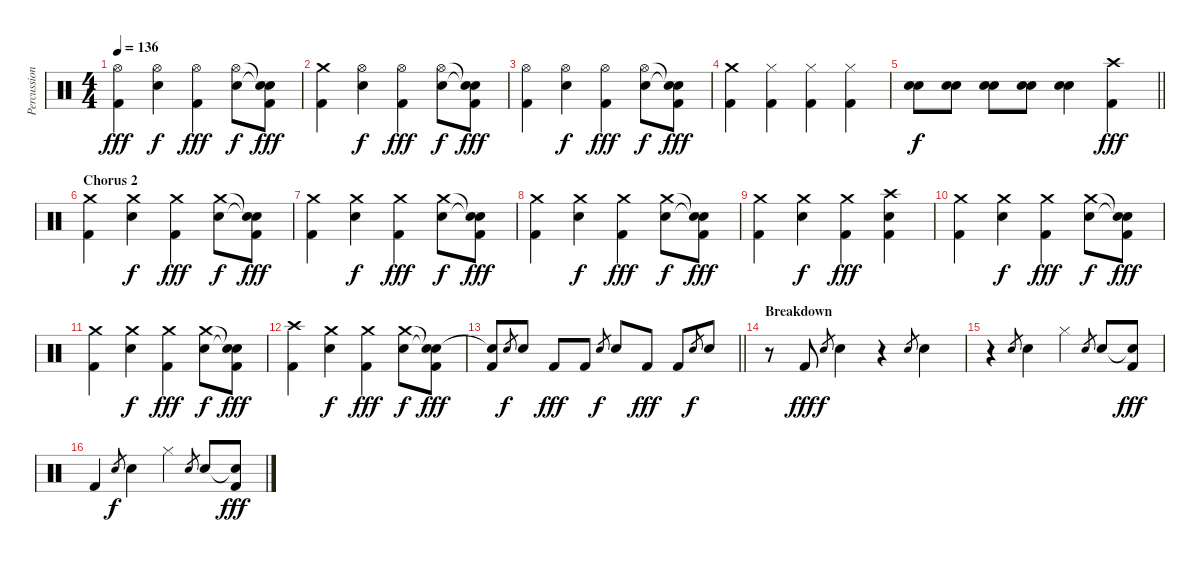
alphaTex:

\track ("Percussion" "Percussion") {instrument percussion}
\staff {score}
\articulation defaults
\ts (4 4)
\tempo 136
\clef neutral
\ks c
("Hi-Hat (open)" "Kick (hit) 2").4{dy fff} ("Hi-Hat (open)" "Electric Snare (hit)").4{dy f} ("Hi-Hat (open)" "Kick (hit) 2").4{dy fff} ("Hi-Hat (open)" "Electric Snare (hit)").8{dy f} ("Snare (hit)"{t} "Snare (hit)"{t} "Kick (hit) 2").8{dy fff} |
("Crash medium (hit)" "Kick (hit) 2").4 ("Hi-Hat (open)" "Electric Snare (hit)").4{dy f} ("Hi-Hat (open)" "Kick (hit) 2").4{dy fff} ("Hi-Hat (open)" "Electric Snare (hit)").8{dy f} ("Snare (hit)"{t} "Snare (hit)"{t} "Kick (hit) 2").8{dy fff} |
("Hi-Hat (open)" "Kick (hit) 2").4 ("Hi-Hat (open)" "Electric Snare (hit)").4{dy f} ("Hi-Hat (open)" "Kick (hit) 2").4{dy fff} ("Hi-Hat (open)" "Electric Snare (hit)").8{dy f} ("Snare (hit)"{t} "Snare (hit)"{t} "Kick (hit) 2").8{dy fff} |
("Crash medium (hit)" "Kick (hit) 2").4 ("Hi-Hat (closed)" "Kick (hit) 2").4 ("Hi-Hat (closed)" "Kick (hit) 2").4 ("Hi-Hat (closed)" "Kick (hit) 2").4 |
\barLineRight lightlight
("Electric Snare (hit)" "Electric Snare (hit)").8{dy f} ("Electric Snare (hit)" "Electric Snare (hit)").8 ("Electric Snare (hit)" "Electric Snare (hit)").8 ("Electric Snare (hit)" "Electric Snare (hit)").8 ("Electric Snare (hit)" "Electric Snare (hit)").4 ("Crash high (hit)" "Kick (hit) 2").4{dy fff} |
\section ("" "Chorus 2")
("Crash medium (hit)" "Kick (hit) 2").4 ("Crash medium (hit)" "Electric Snare (hit)").4{dy f} ("Crash medium (hit)" "Kick (hit) 2").4{dy fff} ("Crash medium (hit)" "Electric Snare (hit)").8{dy f} ("Snare (hit)"{t} "Snare (hit)"{t} "Kick (hit) 2").8{dy fff} |
("Crash medium (hit)" "Kick (hit) 2").4 ("Crash medium (hit)" "Electric Snare (hit)").4{dy f} ("Crash medium (hit)" "Kick (hit) 2").4{dy fff} ("Crash medium (hit)" "Electric Snare (hit)").8{dy f} ("Snare (hit)"{t} "Snare (hit)"{t} "Kick (hit) 2").8{dy fff} |
("Crash medium (hit)" "Kick (hit) 2").4 ("Crash medium (hit)" "Electric Snare (hit)").4{dy f} ("Crash medium (hit)" "Kick (hit) 2").4{dy fff} ("Crash medium (hit)" "Electric Snare (hit)").8{dy f} ("Snare (hit)"{t} "Snare (hit)"{t} "Kick (hit) 2").8{dy fff} |
("Crash medium (hit)" "Kick (hit) 2").4 ("Crash medium (hit)" "Electric Snare (hit)").4{dy f} ("Crash medium (hit)" "Kick (hit) 2").4{dy fff} ("Crash high (hit)" "Electric Snare (hit)" "Kick (hit) 2").4 |
("Crash medium (hit)" "Kick (hit) 2").4 ("Crash medium (hit)" "Electric Snare (hit)").4{dy f} ("Crash medium (hit)" "Kick (hit) 2").4{dy fff} ("Crash medium (hit)" "Electric Snare (hit)").8{dy f} ("Snare (hit)"{t} "Snare (hit)"{t} "Kick (hit) 2").8{dy fff} |
("Crash medium (hit)" "Kick (hit) 2").4 ("Crash medium (hit)" "Electric Snare (hit)").4{dy f} ("Crash medium (hit)" "Kick (hit) 2").4{dy fff} ("Crash medium (hit)" "Electric Snare (hit)").8{dy f} ("Snare (hit)"{t} "Snare (hit)"{t} "Kick (hit) 2").8{dy fff} |
("Crash high (hit)" "Kick (hit) 2").4 ("Crash medium (hit)" "Electric Snare (hit)").4{dy f} ("Crash medium (hit)" "Kick (hit) 2").4{dy fff} ("Crash medium (hit)" "Electric Snare (hit)").8{dy f} ("Snare (hit)"{t} "Snare (hit)"{t} "Kick (hit) 2").8{dy fff} |
\barLineRight lightlight
("Snare (hit)"{t} "Kick (hit) 2").8 "Electric Snare (hit)".8{gr dy f} "Electric Snare (hit)".8 "Kick (hit) 2".8{dy fff} "Kick (hit) 2".8 "Electric Snare (hit)".8{gr dy f} "Electric Snare (hit)".8 "Kick (hit) 2".8{dy fff} "Kick (hit) 2".8 "Electric Snare (hit)".8{gr dy f} "Electric Snare (hit)".8 |
\section ("" "Breakdown")
r.8 "Kick (hit) 2".8{dy fff} "Electric Snare (hit)".8{gr dy f} "Electric Snare (hit)".4 r.4 "Electric Snare (hit)".8{gr} "Electric Snare (hit)".4 |
r.4 "Electric Snare (hit)".8{gr} "Electric Snare (hit)".4 "Hi-Hat (closed)".4 "Electric Snare (hit)".8{gr} "Electric Snare (hit)".8 ("Snare (hit)"{t} "Kick (hit) 2").8{dy fff} |
"Kick (hit) 2".4 "Electric Snare (hit)".8{gr dy f} "Electric Snare (hit)".4 "Hi-Hat (closed)".4 "Electric Snare (hit)".8{gr} "Electric Snare (hit)".8 ("Snare (hit)"{t} "Kick (hit) 2").8{dy fff}
